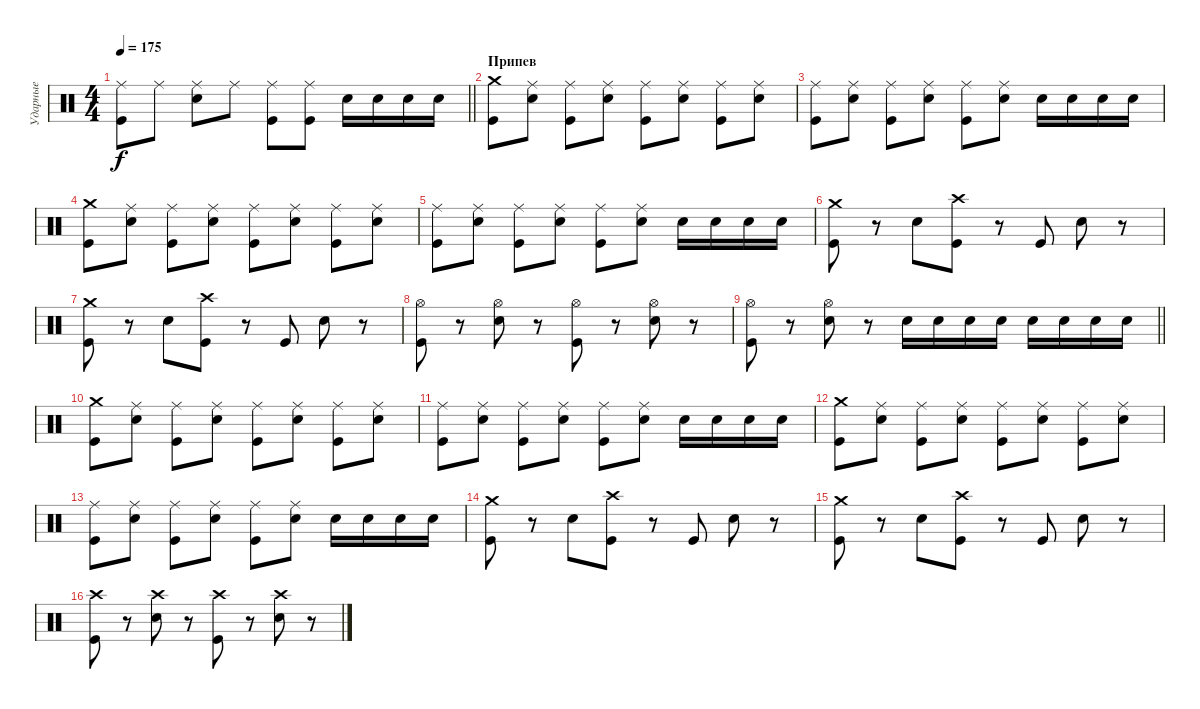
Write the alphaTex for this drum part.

\track ("Ударные" "Ударные") {instrument percussion}
\staff {score}
\articulation defaults
\ts (4 4)
\tempo 175
\clef neutral
\barLineRight lightlight
\ks c
("Ride (middle)" "Kick (hit)").8{dy f} "Ride (middle)".8 ("Ride (middle)" "Electric Snare (hit)").8 "Ride (middle)".8 ("Ride (middle)" "Kick (hit)").8 ("Ride (middle)" "Kick (hit)").8 "Electric Snare (hit)".16 "Electric Snare (hit)".16 "Electric Snare (hit)".16 "Electric Snare (hit)".16 |
\section ("" "Припев")
("Crash medium (hit)" "Kick (hit)").8 ("Ride (middle)" "Electric Snare (hit)").8 ("Ride (middle)" "Kick (hit)").8 ("Ride (middle)" "Electric Snare (hit)").8 ("Ride (middle)" "Kick (hit)").8 ("Ride (middle)" "Electric Snare (hit)").8 ("Ride (middle)" "Kick (hit)").8 ("Ride (middle)" "Electric Snare (hit)").8 |
("Ride (middle)" "Kick (hit)").8 ("Ride (middle)" "Electric Snare (hit)").8 ("Ride (middle)" "Kick (hit)").8 ("Ride (middle)" "Electric Snare (hit)").8 ("Ride (middle)" "Kick (hit)").8 ("Ride (middle)" "Electric Snare (hit)").8 "Electric Snare (hit)".16 "Electric Snare (hit)".16 "Electric Snare (hit)".16 "Electric Snare (hit)".16 |
("Crash medium (hit)" "Kick (hit)").8 ("Ride (middle)" "Electric Snare (hit)").8 ("Ride (middle)" "Kick (hit)").8 ("Ride (middle)" "Electric Snare (hit)").8 ("Ride (middle)" "Kick (hit)").8 ("Ride (middle)" "Electric Snare (hit)").8 ("Ride (middle)" "Kick (hit)").8 ("Ride (middle)" "Electric Snare (hit)").8 |
("Ride (middle)" "Kick (hit)").8 ("Ride (middle)" "Electric Snare (hit)").8 ("Ride (middle)" "Kick (hit)").8 ("Ride (middle)" "Electric Snare (hit)").8 ("Ride (middle)" "Kick (hit)").8 ("Ride (middle)" "Electric Snare (hit)").8 "Electric Snare (hit)".16 "Electric Snare (hit)".16 "Electric Snare (hit)".16 "Electric Snare (hit)".16 |
("Crash medium (hit)" "Kick (hit)").8 r.8 "Electric Snare (hit)".8 ("Crash high (hit)" "Kick (hit)").8 r.8 "Kick (hit)".8 "Electric Snare (hit)".8 r.8 |
("Crash medium (hit)" "Kick (hit)").8 r.8 "Electric Snare (hit)".8 ("Crash high (hit)" "Kick (hit)").8 r.8 "Kick (hit)".8 "Electric Snare (hit)".8 r.8 |
("Hi-Hat (open)" "Kick (hit)").8 r.8 ("Hi-Hat (open)" "Electric Snare (hit)").8 r.8 ("Hi-Hat (open)" "Kick (hit)").8 r.8 ("Hi-Hat (open)" "Electric Snare (hit)").8 r.8 |
\barLineRight lightlight
("Hi-Hat (open)" "Kick (hit)").8 r.8 ("Hi-Hat (open)" "Electric Snare (hit)").8 r.8 "Electric Snare (hit)".16 "Electric Snare (hit)".16 "Electric Snare (hit)".16 "Electric Snare (hit)".16 "Electric Snare (hit)".16 "Electric Snare (hit)".16 "Electric Snare (hit)".16 "Electric Snare (hit)".16 |
\section ("" " ")
("Crash medium (hit)" "Kick (hit)").8 ("Ride (middle)" "Electric Snare (hit)").8 ("Ride (middle)" "Kick (hit)").8 ("Ride (middle)" "Electric Snare (hit)").8 ("Ride (middle)" "Kick (hit)").8 ("Ride (middle)" "Electric Snare (hit)").8 ("Ride (middle)" "Kick (hit)").8 ("Ride (middle)" "Electric Snare (hit)").8 |
("Ride (middle)" "Kick (hit)").8 ("Ride (middle)" "Electric Snare (hit)").8 ("Ride (middle)" "Kick (hit)").8 ("Ride (middle)" "Electric Snare (hit)").8 ("Ride (middle)" "Kick (hit)").8 ("Ride (middle)" "Electric Snare (hit)").8 "Electric Snare (hit)".16 "Electric Snare (hit)".16 "Electric Snare (hit)".16 "Electric Snare (hit)".16 |
("Crash medium (hit)" "Kick (hit)").8 ("Ride (middle)" "Electric Snare (hit)").8 ("Ride (middle)" "Kick (hit)").8 ("Ride (middle)" "Electric Snare (hit)").8 ("Ride (middle)" "Kick (hit)").8 ("Ride (middle)" "Electric Snare (hit)").8 ("Ride (middle)" "Kick (hit)").8 ("Ride (middle)" "Electric Snare (hit)").8 |
("Ride (middle)" "Kick (hit)").8 ("Ride (middle)" "Electric Snare (hit)").8 ("Ride (middle)" "Kick (hit)").8 ("Ride (middle)" "Electric Snare (hit)").8 ("Ride (middle)" "Kick (hit)").8 ("Ride (middle)" "Electric Snare (hit)").8 "Electric Snare (hit)".16 "Electric Snare (hit)".16 "Electric Snare (hit)".16 "Electric Snare (hit)".16 |
("Crash medium (hit)" "Kick (hit)").8 r.8 "Electric Snare (hit)".8 ("Crash high (hit)" "Kick (hit)").8 r.8 "Kick (hit)".8 "Electric Snare (hit)".8 r.8 |
("Crash medium (hit)" "Kick (hit)").8 r.8 "Electric Snare (hit)".8 ("Crash high (hit)" "Kick (hit)").8 r.8 "Kick (hit)".8 "Electric Snare (hit)".8 r.8 |
("Crash high (hit)" "Kick (hit)").8 r.8 ("Crash high (hit)" "Electric Snare (hit)").8 r.8 ("Crash high (hit)" "Kick (hit)").8 r.8 ("Crash high (hit)" "Electric Snare (hit)").8 r.8
